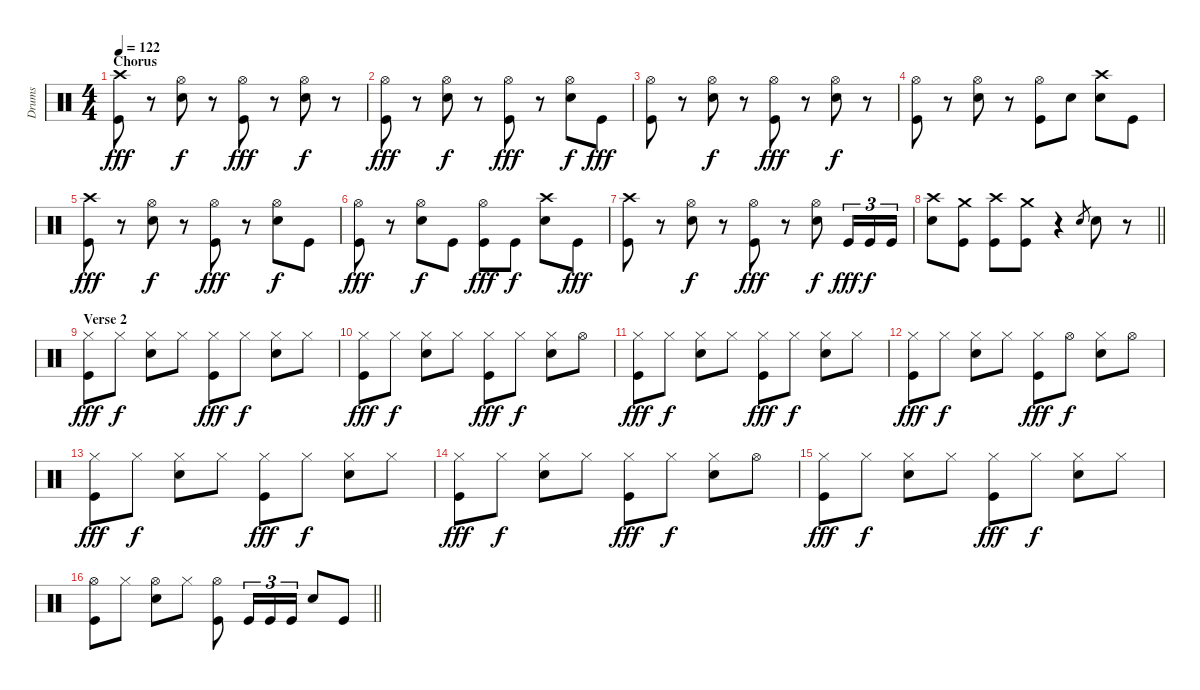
\track ("Drums" "Drums") {instrument percussion}
\staff {score}
\articulation defaults
\ts (4 4)
\section ("" "Chorus")
\tempo 122
\clef neutral
\ks c
("Kick (hit)" "Crash high (hit)").8{dy fff} r.8 ("Hi-Hat (open)" "Snare (hit) 2").8{dy f} r.8 ("Kick (hit)" "Hi-Hat (open)").8{dy fff} r.8 ("Hi-Hat (open)" "Snare (hit) 2").8{dy f} r.8 |
("Kick (hit)" "Hi-Hat (open)").8{dy fff} r.8 ("Hi-Hat (open)" "Snare (hit) 2").8{dy f} r.8 ("Kick (hit)" "Hi-Hat (open)").8{dy fff} r.8 ("Hi-Hat (open)" "Snare (hit) 2").8{dy f} "Kick (hit)".8{dy fff} |
("Kick (hit)" "Hi-Hat (open)").8 r.8 ("Hi-Hat (open)" "Snare (hit) 2").8{dy f} r.8 ("Kick (hit)" "Hi-Hat (open)").8{dy fff} r.8 ("Hi-Hat (open)" "Snare (hit) 2").8{dy f} r.8 |
("Kick (hit)" "Hi-Hat (open)").8 r.8 ("Hi-Hat (open)" "Snare (hit) 2").8 r.8 ("Kick (hit)" "Hi-Hat (open)").8 "Snare (hit) 2".8 ("Snare (hit) 2" "Crash high (hit)").8 "Kick (hit)".8 |
("Kick (hit)" "Crash high (hit)").8{dy fff} r.8 ("Hi-Hat (open)" "Snare (hit) 2").8{dy f} r.8 ("Kick (hit)" "Hi-Hat (open)").8{dy fff} r.8 ("Hi-Hat (open)" "Snare (hit) 2").8{dy f} "Kick (hit)".8 |
("Kick (hit)" "Hi-Hat (open)").8{dy fff} r.8 ("Hi-Hat (open)" "Snare (hit) 2").8{dy f} "Kick (hit)".8 ("Kick (hit)" "Hi-Hat (open)").8{dy fff} "Kick (hit)".8{dy f} ("Crash high (hit)" "Snare (hit) 2").8 "Kick (hit)".8{dy fff} |
("Kick (hit)" "Crash high (hit)").8 r.8 ("Hi-Hat (open)" "Snare (hit) 2").8{dy f} r.8 ("Kick (hit)" "Hi-Hat (open)").8{dy fff} r.8 ("Hi-Hat (open)" "Snare (hit) 2").8{dy f} "Kick (hit)".16{tu (3 2) dy fff} "Kick (hit)".16{tu (3 2) dy f} "Kick (hit)".16{tu (3 2)} |
\barLineRight lightlight
("Snare (hit) 2" "Crash high (hit)").8 ("Crash medium (hit)" "Kick (hit)").8 ("Kick (hit)" "Crash high (hit)").8 ("Crash medium (hit)" "Kick (hit)").8 r.4 "Snare (hit) 2".8{gr} "Snare (hit) 2".8 r.8 |
\section ("" "Verse 2")
("Kick (hit)" "Hi-Hat (closed)").8{dy fff} "Hi-Hat (closed)".8{dy f} ("Hi-Hat (closed)" "Snare (hit) 2").8 "Hi-Hat (closed)".8 ("Kick (hit)" "Hi-Hat (closed)").8{dy fff} "Hi-Hat (closed)".8{dy f} ("Snare (hit) 2" "Hi-Hat (closed)").8 "Hi-Hat (closed)".8 |
("Kick (hit)" "Hi-Hat (closed)").8{dy fff} "Hi-Hat (closed)".8{dy f} ("Snare (hit) 2" "Hi-Hat (closed)").8 "Hi-Hat (closed)".8 ("Kick (hit)" "Hi-Hat (closed)").8{dy fff} "Hi-Hat (closed)".8{dy f} ("Snare (hit) 2" "Hi-Hat (closed)").8 "Hi-Hat (open)".8 |
("Kick (hit)" "Hi-Hat (closed)").8{dy fff} "Hi-Hat (closed)".8{dy f} ("Hi-Hat (closed)" "Snare (hit) 2").8 "Hi-Hat (closed)".8 ("Kick (hit)" "Hi-Hat (closed)").8{dy fff} "Hi-Hat (closed)".8{dy f} ("Snare (hit) 2" "Hi-Hat (closed)").8 "Hi-Hat (closed)".8 |
("Kick (hit)" "Hi-Hat (closed)").8{dy fff} "Hi-Hat (closed)".8{dy f} ("Snare (hit) 2" "Hi-Hat (closed)").8 "Hi-Hat (closed)".8 ("Kick (hit)" "Hi-Hat (closed)").8{dy fff} "Hi-Hat (open)".8{dy f} ("Snare (hit) 2" "Hi-Hat (closed)").8 "Hi-Hat (open)".8 |
("Kick (hit)" "Hi-Hat (closed)").8{dy fff} "Hi-Hat (closed)".8{dy f} ("Hi-Hat (closed)" "Snare (hit) 2").8 "Hi-Hat (closed)".8 ("Kick (hit)" "Hi-Hat (closed)").8{dy fff} "Hi-Hat (closed)".8{dy f} ("Snare (hit) 2" "Hi-Hat (closed)").8 "Hi-Hat (closed)".8 |
("Kick (hit)" "Hi-Hat (closed)").8{dy fff} "Hi-Hat (closed)".8{dy f} ("Snare (hit) 2" "Hi-Hat (closed)").8 "Hi-Hat (closed)".8 ("Kick (hit)" "Hi-Hat (closed)").8{dy fff} "Hi-Hat (closed)".8{dy f} ("Snare (hit) 2" "Hi-Hat (closed)").8 "Hi-Hat (open)".8 |
("Kick (hit)" "Hi-Hat (closed)").8{dy fff} "Hi-Hat (closed)".8{dy f} ("Snare (hit) 2" "Hi-Hat (closed)").8 "Hi-Hat (closed)".8 ("Kick (hit)" "Hi-Hat (closed)").8{dy fff} "Hi-Hat (closed)".8{dy f} ("Snare (hit) 2" "Hi-Hat (closed)").8 "Hi-Hat (closed)".8 |
\barLineRight lightlight
("Kick (hit)" "Hi-Hat (open)").8 "Hi-Hat (closed)".8 ("Snare (hit) 2" "Hi-Hat (open)").8 "Hi-Hat (closed)".8 ("Hi-Hat (open)" "Kick (hit)").8 "Kick (hit)".16{tu (3 2)} "Kick (hit)".16{tu (3 2)} "Kick (hit)".16{tu (3 2)} "Snare (hit) 2".8 "Kick (hit)".8
